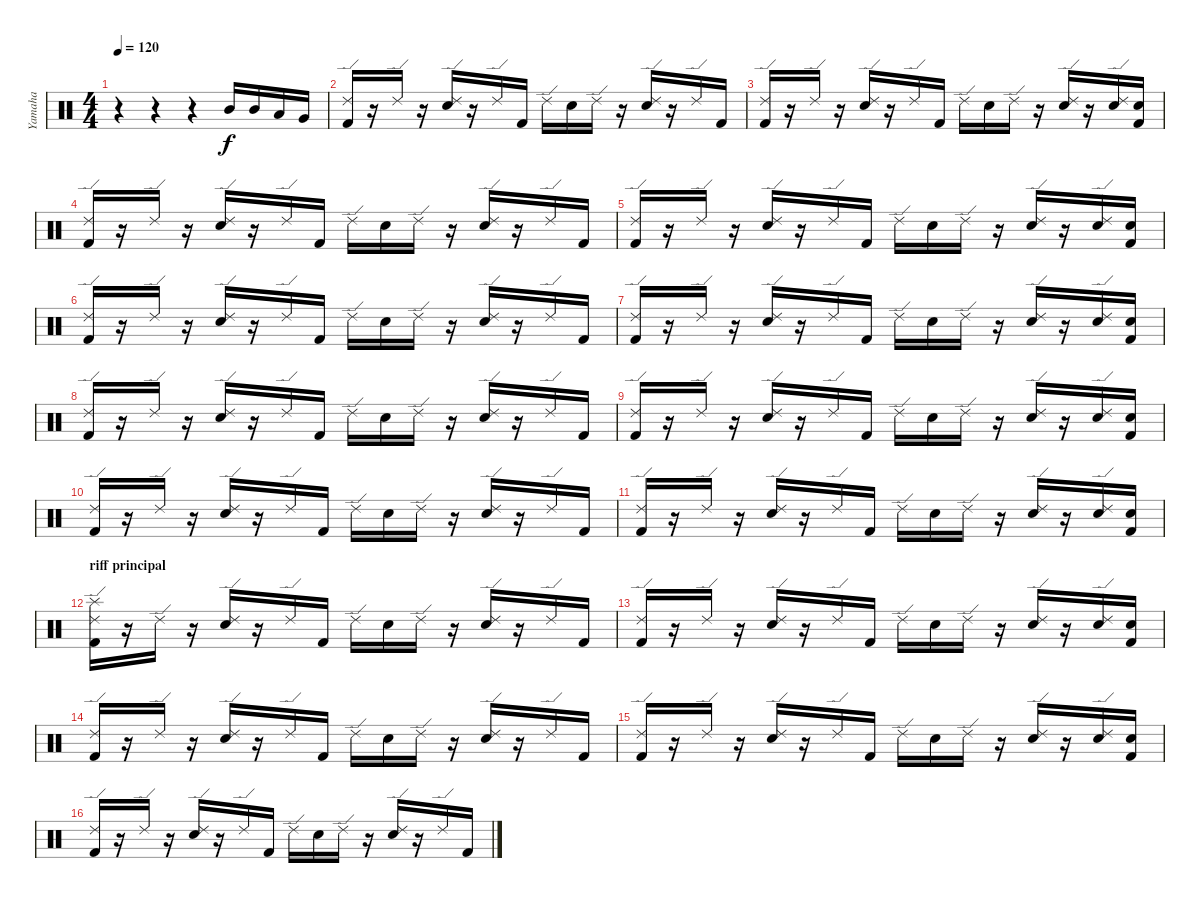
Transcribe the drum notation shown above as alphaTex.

\track ("Yamaha" "Yamaha") {instrument percussion}
\staff {score}
\articulation defaults
\ts (4 4)
\tempo 120
\clef neutral
\ks c
r.4{dy f} r.4 r.4 "Mid Tom (hit)".16 "Mid Tom (hit)".16 "Low Tom (hit)".16 "Very Low Tom (hit)".16 |
("Ride (edge) 2" "Kick (hit) 2").16 r.16 "Ride (edge) 2".16 r.16 ("Ride (edge) 2" "Snare (hit) 2").16 r.16 "Ride (edge) 2".16 "Kick (hit) 2".16 "Ride (edge) 2".16 "Snare (hit) 2".16 "Ride (edge) 2".16 r.16 ("Ride (edge) 2" "Snare (hit) 2").16 r.16 "Ride (edge) 2".16 "Kick (hit) 2".16 |
("Ride (edge) 2" "Kick (hit) 2").16 r.16 "Ride (edge) 2".16 r.16 ("Ride (edge) 2" "Snare (hit) 2").16 r.16 "Ride (edge) 2".16 "Kick (hit) 2".16 "Ride (edge) 2".16 "Snare (hit) 2".16 "Ride (edge) 2".16 r.16 ("Ride (edge) 2" "Snare (hit) 2").16 r.16 ("Ride (edge) 2" "Snare (hit) 2").16 ("Snare (hit) 2" "Kick (hit) 2").16 |
("Ride (edge) 2" "Kick (hit) 2").16 r.16 "Ride (edge) 2".16 r.16 ("Ride (edge) 2" "Snare (hit) 2").16 r.16 "Ride (edge) 2".16 "Kick (hit) 2".16 "Ride (edge) 2".16 "Snare (hit) 2".16 "Ride (edge) 2".16 r.16 ("Ride (edge) 2" "Snare (hit) 2").16 r.16 "Ride (edge) 2".16 "Kick (hit) 2".16 |
("Ride (edge) 2" "Kick (hit) 2").16 r.16 "Ride (edge) 2".16 r.16 ("Ride (edge) 2" "Snare (hit) 2").16 r.16 "Ride (edge) 2".16 "Kick (hit) 2".16 "Ride (edge) 2".16 "Snare (hit) 2".16 "Ride (edge) 2".16 r.16 ("Ride (edge) 2" "Snare (hit) 2").16 r.16 ("Ride (edge) 2" "Snare (hit) 2").16 ("Snare (hit) 2" "Kick (hit) 2").16 |
("Ride (edge) 2" "Kick (hit) 2").16 r.16 "Ride (edge) 2".16 r.16 ("Ride (edge) 2" "Snare (hit) 2").16 r.16 "Ride (edge) 2".16 "Kick (hit) 2".16 "Ride (edge) 2".16 "Snare (hit) 2".16 "Ride (edge) 2".16 r.16 ("Ride (edge) 2" "Snare (hit) 2").16 r.16 "Ride (edge) 2".16 "Kick (hit) 2".16 |
("Ride (edge) 2" "Kick (hit) 2").16 r.16 "Ride (edge) 2".16 r.16 ("Ride (edge) 2" "Snare (hit) 2").16 r.16 "Ride (edge) 2".16 "Kick (hit) 2".16 "Ride (edge) 2".16 "Snare (hit) 2".16 "Ride (edge) 2".16 r.16 ("Ride (edge) 2" "Snare (hit) 2").16 r.16 ("Ride (edge) 2" "Snare (hit) 2").16 ("Snare (hit) 2" "Kick (hit) 2").16 |
("Ride (edge) 2" "Kick (hit) 2").16 r.16 "Ride (edge) 2".16 r.16 ("Ride (edge) 2" "Snare (hit) 2").16 r.16 "Ride (edge) 2".16 "Kick (hit) 2".16 "Ride (edge) 2".16 "Snare (hit) 2".16 "Ride (edge) 2".16 r.16 ("Ride (edge) 2" "Snare (hit) 2").16 r.16 "Ride (edge) 2".16 "Kick (hit) 2".16 |
("Ride (edge) 2" "Kick (hit) 2").16 r.16 "Ride (edge) 2".16 r.16 ("Ride (edge) 2" "Snare (hit) 2").16 r.16 "Ride (edge) 2".16 "Kick (hit) 2".16 "Ride (edge) 2".16 "Snare (hit) 2".16 "Ride (edge) 2".16 r.16 ("Ride (edge) 2" "Snare (hit) 2").16 r.16 ("Ride (edge) 2" "Snare (hit) 2").16 ("Snare (hit) 2" "Kick (hit) 2").16 |
("Ride (edge) 2" "Kick (hit) 2").16 r.16 "Ride (edge) 2".16 r.16 ("Ride (edge) 2" "Snare (hit) 2").16 r.16 "Ride (edge) 2".16 "Kick (hit) 2".16 "Ride (edge) 2".16 "Snare (hit) 2".16 "Ride (edge) 2".16 r.16 ("Ride (edge) 2" "Snare (hit) 2").16 r.16 "Ride (edge) 2".16 "Kick (hit) 2".16 |
("Ride (edge) 2" "Kick (hit) 2").16 r.16 "Ride (edge) 2".16 r.16 ("Ride (edge) 2" "Snare (hit) 2").16 r.16 "Ride (edge) 2".16 "Kick (hit) 2".16 "Ride (edge) 2".16 "Snare (hit) 2".16 "Ride (edge) 2".16 r.16 ("Ride (edge) 2" "Snare (hit) 2").16 r.16 ("Ride (edge) 2" "Snare (hit) 2").16 ("Snare (hit) 2" "Kick (hit) 2").16 |
\section ("" "riff principal")
("Splash (hit)" "Ride (edge) 2" "Kick (hit) 2").16 r.16 "Ride (edge) 2".16 r.16 ("Ride (edge) 2" "Snare (hit) 2").16 r.16 "Ride (edge) 2".16 "Kick (hit) 2".16 "Ride (edge) 2".16 "Snare (hit) 2".16 "Ride (edge) 2".16 r.16 ("Ride (edge) 2" "Snare (hit) 2").16 r.16 "Ride (edge) 2".16 "Kick (hit) 2".16 |
("Ride (edge) 2" "Kick (hit) 2").16 r.16 "Ride (edge) 2".16 r.16 ("Ride (edge) 2" "Snare (hit) 2").16 r.16 "Ride (edge) 2".16 "Kick (hit) 2".16 "Ride (edge) 2".16 "Snare (hit) 2".16 "Ride (edge) 2".16 r.16 ("Ride (edge) 2" "Snare (hit) 2").16 r.16 ("Ride (edge) 2" "Snare (hit) 2").16 ("Snare (hit) 2" "Kick (hit) 2").16 |
("Ride (edge) 2" "Kick (hit) 2").16 r.16 "Ride (edge) 2".16 r.16 ("Ride (edge) 2" "Snare (hit) 2").16 r.16 "Ride (edge) 2".16 "Kick (hit) 2".16 "Ride (edge) 2".16 "Snare (hit) 2".16 "Ride (edge) 2".16 r.16 ("Ride (edge) 2" "Snare (hit) 2").16 r.16 "Ride (edge) 2".16 "Kick (hit) 2".16 |
("Ride (edge) 2" "Kick (hit) 2").16 r.16 "Ride (edge) 2".16 r.16 ("Ride (edge) 2" "Snare (hit) 2").16 r.16 "Ride (edge) 2".16 "Kick (hit) 2".16 "Ride (edge) 2".16 "Snare (hit) 2".16 "Ride (edge) 2".16 r.16 ("Ride (edge) 2" "Snare (hit) 2").16 r.16 ("Ride (edge) 2" "Snare (hit) 2").16 ("Snare (hit) 2" "Kick (hit) 2").16 |
("Ride (edge) 2" "Kick (hit) 2").16 r.16 "Ride (edge) 2".16 r.16 ("Ride (edge) 2" "Snare (hit) 2").16 r.16 "Ride (edge) 2".16 "Kick (hit) 2".16 "Ride (edge) 2".16 "Snare (hit) 2".16 "Ride (edge) 2".16 r.16 ("Ride (edge) 2" "Snare (hit) 2").16 r.16 "Ride (edge) 2".16 "Kick (hit) 2".16
